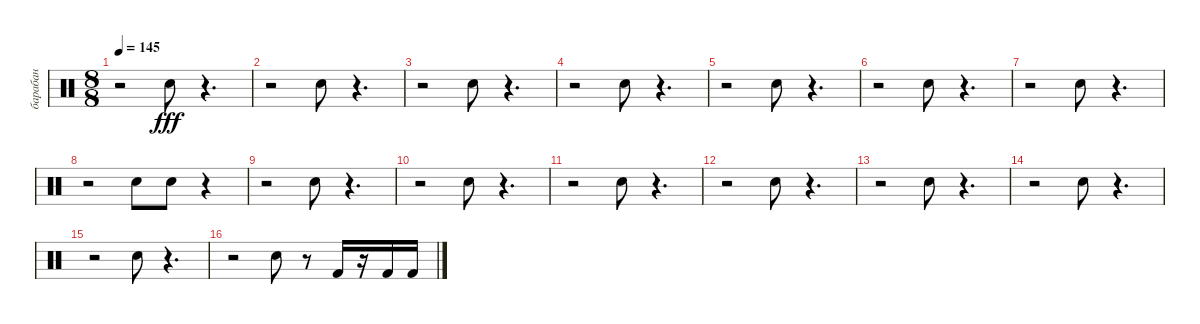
\track ("барабан" "барабан") {instrument percussion}
\staff {score}
\articulation defaults
\ts (8 8)
\tempo 145
\clef neutral
\ks c
r.2{dy fff} "Snare (hit) 2".8 r.4{d} |
r.2 "Snare (hit) 2".8 r.4{d} |
r.2 "Snare (hit) 2".8 r.4{d} |
r.2 "Snare (hit) 2".8 r.4{d} |
r.2 "Snare (hit) 2".8 r.4{d} |
r.2 "Snare (hit) 2".8 r.4{d} |
r.2 "Snare (hit) 2".8 r.4{d} |
r.2 "Snare (hit) 2".8 "Snare (hit) 2".8 r.4 |
r.2 "Snare (hit) 2".8 r.4{d} |
r.2 "Snare (hit) 2".8 r.4{d} |
r.2 "Snare (hit) 2".8 r.4{d} |
r.2 "Snare (hit) 2".8 r.4{d} |
r.2 "Snare (hit) 2".8 r.4{d} |
r.2 "Snare (hit) 2".8 r.4{d} |
r.2 "Snare (hit) 2".8 r.4{d} |
r.2 "Snare (hit) 2".8 r.8 "Kick (hit) 2".16 r.16 "Kick (hit) 2".16 "Kick (hit) 2".16
